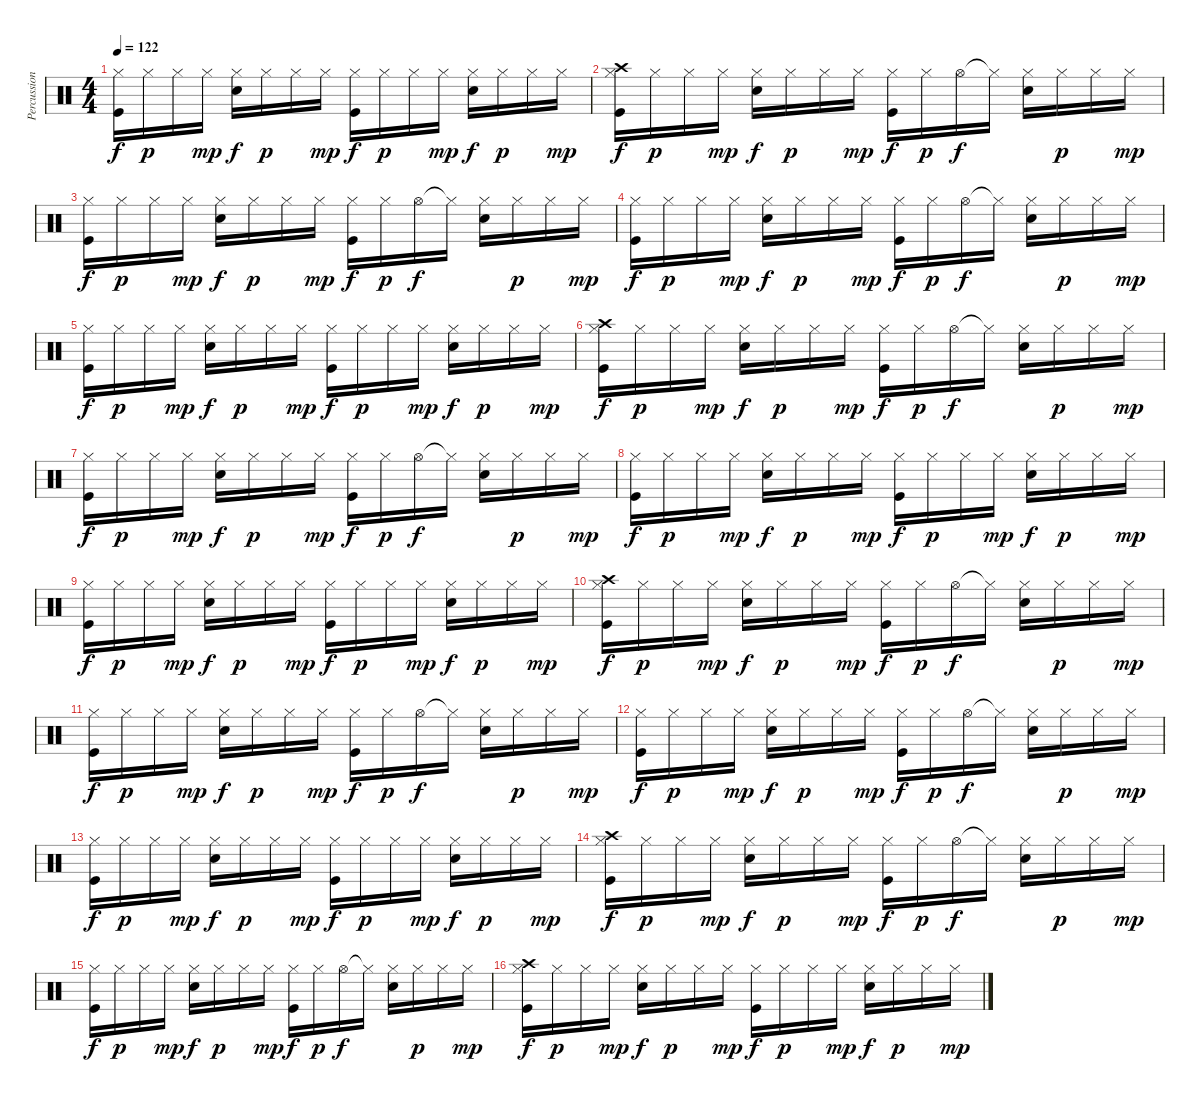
\track ("Percussion" "Percussion") {instrument percussion}
\staff {score}
\articulation defaults
\ts (4 4)
\tempo 122
\clef neutral
\ks c
("Hi-Hat (closed)" "Kick (hit)").16{dy f} "Hi-Hat (closed)".16{dy p} "Hi-Hat (closed)".16 "Hi-Hat (closed)".16{dy mp} ("Hi-Hat (closed)" "Snare (hit) 2").16{dy f} "Hi-Hat (closed)".16{dy p} "Hi-Hat (closed)".16 "Hi-Hat (closed)".16{dy mp} ("Hi-Hat (closed)" "Kick (hit)").16{dy f} "Hi-Hat (closed)".16{dy p} "Hi-Hat (closed)".16 "Hi-Hat (closed)".16{dy mp} ("Hi-Hat (closed)" "Snare (hit) 2").16{dy f} "Hi-Hat (closed)".16{dy p} "Hi-Hat (closed)".16 "Hi-Hat (closed)".16{dy mp} |
("Crash high (hit)" "Hi-Hat (closed)" "Kick (hit)").16{dy f} "Hi-Hat (closed)".16{dy p} "Hi-Hat (closed)".16 "Hi-Hat (closed)".16{dy mp} ("Hi-Hat (closed)" "Snare (hit) 2").16{dy f} "Hi-Hat (closed)".16{dy p} "Hi-Hat (closed)".16 "Hi-Hat (closed)".16{dy mp} ("Hi-Hat (closed)" "Kick (hit)").16{dy f} "Hi-Hat (closed)".16{dy p} "Hi-Hat (open)".16{dy f} "Hi-Hat (closed)"{t}.16 ("Hi-Hat (closed)" "Snare (hit) 2").16 "Hi-Hat (closed)".16{dy p} "Hi-Hat (closed)".16 "Hi-Hat (closed)".16{dy mp} |
("Hi-Hat (closed)" "Kick (hit)").16{dy f} "Hi-Hat (closed)".16{dy p} "Hi-Hat (closed)".16 "Hi-Hat (closed)".16{dy mp} ("Hi-Hat (closed)" "Snare (hit) 2").16{dy f} "Hi-Hat (closed)".16{dy p} "Hi-Hat (closed)".16 "Hi-Hat (closed)".16{dy mp} ("Hi-Hat (closed)" "Kick (hit)").16{dy f} "Hi-Hat (closed)".16{dy p} "Hi-Hat (open)".16{dy f} "Hi-Hat (closed)"{t}.16 ("Hi-Hat (closed)" "Snare (hit) 2").16 "Hi-Hat (closed)".16{dy p} "Hi-Hat (closed)".16 "Hi-Hat (closed)".16{dy mp} |
("Hi-Hat (closed)" "Kick (hit)").16{dy f} "Hi-Hat (closed)".16{dy p} "Hi-Hat (closed)".16 "Hi-Hat (closed)".16{dy mp} ("Hi-Hat (closed)" "Snare (hit) 2").16{dy f} "Hi-Hat (closed)".16{dy p} "Hi-Hat (closed)".16 "Hi-Hat (closed)".16{dy mp} ("Hi-Hat (closed)" "Kick (hit)").16{dy f} "Hi-Hat (closed)".16{dy p} "Hi-Hat (open)".16{dy f} "Hi-Hat (closed)"{t}.16 ("Hi-Hat (closed)" "Snare (hit) 2").16 "Hi-Hat (closed)".16{dy p} "Hi-Hat (closed)".16 "Hi-Hat (closed)".16{dy mp} |
("Hi-Hat (closed)" "Kick (hit)").16{dy f} "Hi-Hat (closed)".16{dy p} "Hi-Hat (closed)".16 "Hi-Hat (closed)".16{dy mp} ("Hi-Hat (closed)" "Snare (hit) 2").16{dy f} "Hi-Hat (closed)".16{dy p} "Hi-Hat (closed)".16 "Hi-Hat (closed)".16{dy mp} ("Hi-Hat (closed)" "Kick (hit)").16{dy f} "Hi-Hat (closed)".16{dy p} "Hi-Hat (closed)".16 "Hi-Hat (closed)".16{dy mp} ("Hi-Hat (closed)" "Snare (hit) 2").16{dy f} "Hi-Hat (closed)".16{dy p} "Hi-Hat (closed)".16 "Hi-Hat (closed)".16{dy mp} |
("Crash high (hit)" "Hi-Hat (closed)" "Kick (hit)").16{dy f} "Hi-Hat (closed)".16{dy p} "Hi-Hat (closed)".16 "Hi-Hat (closed)".16{dy mp} ("Hi-Hat (closed)" "Snare (hit) 2").16{dy f} "Hi-Hat (closed)".16{dy p} "Hi-Hat (closed)".16 "Hi-Hat (closed)".16{dy mp} ("Hi-Hat (closed)" "Kick (hit)").16{dy f} "Hi-Hat (closed)".16{dy p} "Hi-Hat (open)".16{dy f} "Hi-Hat (closed)"{t}.16 ("Hi-Hat (closed)" "Snare (hit) 2").16 "Hi-Hat (closed)".16{dy p} "Hi-Hat (closed)".16 "Hi-Hat (closed)".16{dy mp} |
("Hi-Hat (closed)" "Kick (hit)").16{dy f} "Hi-Hat (closed)".16{dy p} "Hi-Hat (closed)".16 "Hi-Hat (closed)".16{dy mp} ("Hi-Hat (closed)" "Snare (hit) 2").16{dy f} "Hi-Hat (closed)".16{dy p} "Hi-Hat (closed)".16 "Hi-Hat (closed)".16{dy mp} ("Hi-Hat (closed)" "Kick (hit)").16{dy f} "Hi-Hat (closed)".16{dy p} "Hi-Hat (open)".16{dy f} "Hi-Hat (closed)"{t}.16 ("Hi-Hat (closed)" "Snare (hit) 2").16 "Hi-Hat (closed)".16{dy p} "Hi-Hat (closed)".16 "Hi-Hat (closed)".16{dy mp} |
("Hi-Hat (closed)" "Kick (hit)").16{dy f} "Hi-Hat (closed)".16{dy p} "Hi-Hat (closed)".16 "Hi-Hat (closed)".16{dy mp} ("Hi-Hat (closed)" "Snare (hit) 2").16{dy f} "Hi-Hat (closed)".16{dy p} "Hi-Hat (closed)".16 "Hi-Hat (closed)".16{dy mp} ("Hi-Hat (closed)" "Kick (hit)").16{dy f} "Hi-Hat (closed)".16{dy p} "Hi-Hat (closed)".16 "Hi-Hat (closed)".16{dy mp} ("Hi-Hat (closed)" "Snare (hit) 2").16{dy f} "Hi-Hat (closed)".16{dy p} "Hi-Hat (closed)".16 "Hi-Hat (closed)".16{dy mp} |
("Hi-Hat (closed)" "Kick (hit)").16{dy f} "Hi-Hat (closed)".16{dy p} "Hi-Hat (closed)".16 "Hi-Hat (closed)".16{dy mp} ("Hi-Hat (closed)" "Snare (hit) 2").16{dy f} "Hi-Hat (closed)".16{dy p} "Hi-Hat (closed)".16 "Hi-Hat (closed)".16{dy mp} ("Hi-Hat (closed)" "Kick (hit)").16{dy f} "Hi-Hat (closed)".16{dy p} "Hi-Hat (closed)".16 "Hi-Hat (closed)".16{dy mp} ("Hi-Hat (closed)" "Snare (hit) 2").16{dy f} "Hi-Hat (closed)".16{dy p} "Hi-Hat (closed)".16 "Hi-Hat (closed)".16{dy mp} |
("Crash high (hit)" "Hi-Hat (closed)" "Kick (hit)").16{dy f} "Hi-Hat (closed)".16{dy p} "Hi-Hat (closed)".16 "Hi-Hat (closed)".16{dy mp} ("Hi-Hat (closed)" "Snare (hit) 2").16{dy f} "Hi-Hat (closed)".16{dy p} "Hi-Hat (closed)".16 "Hi-Hat (closed)".16{dy mp} ("Hi-Hat (closed)" "Kick (hit)").16{dy f} "Hi-Hat (closed)".16{dy p} "Hi-Hat (open)".16{dy f} "Hi-Hat (closed)"{t}.16 ("Hi-Hat (closed)" "Snare (hit) 2").16 "Hi-Hat (closed)".16{dy p} "Hi-Hat (closed)".16 "Hi-Hat (closed)".16{dy mp} |
("Hi-Hat (closed)" "Kick (hit)").16{dy f} "Hi-Hat (closed)".16{dy p} "Hi-Hat (closed)".16 "Hi-Hat (closed)".16{dy mp} ("Hi-Hat (closed)" "Snare (hit) 2").16{dy f} "Hi-Hat (closed)".16{dy p} "Hi-Hat (closed)".16 "Hi-Hat (closed)".16{dy mp} ("Hi-Hat (closed)" "Kick (hit)").16{dy f} "Hi-Hat (closed)".16{dy p} "Hi-Hat (open)".16{dy f} "Hi-Hat (closed)"{t}.16 ("Hi-Hat (closed)" "Snare (hit) 2").16 "Hi-Hat (closed)".16{dy p} "Hi-Hat (closed)".16 "Hi-Hat (closed)".16{dy mp} |
("Hi-Hat (closed)" "Kick (hit)").16{dy f} "Hi-Hat (closed)".16{dy p} "Hi-Hat (closed)".16 "Hi-Hat (closed)".16{dy mp} ("Hi-Hat (closed)" "Snare (hit) 2").16{dy f} "Hi-Hat (closed)".16{dy p} "Hi-Hat (closed)".16 "Hi-Hat (closed)".16{dy mp} ("Hi-Hat (closed)" "Kick (hit)").16{dy f} "Hi-Hat (closed)".16{dy p} "Hi-Hat (open)".16{dy f} "Hi-Hat (closed)"{t}.16 ("Hi-Hat (closed)" "Snare (hit) 2").16 "Hi-Hat (closed)".16{dy p} "Hi-Hat (closed)".16 "Hi-Hat (closed)".16{dy mp} |
("Hi-Hat (closed)" "Kick (hit)").16{dy f} "Hi-Hat (closed)".16{dy p} "Hi-Hat (closed)".16 "Hi-Hat (closed)".16{dy mp} ("Hi-Hat (closed)" "Snare (hit) 2").16{dy f} "Hi-Hat (closed)".16{dy p} "Hi-Hat (closed)".16 "Hi-Hat (closed)".16{dy mp} ("Hi-Hat (closed)" "Kick (hit)").16{dy f} "Hi-Hat (closed)".16{dy p} "Hi-Hat (closed)".16 "Hi-Hat (closed)".16{dy mp} ("Hi-Hat (closed)" "Snare (hit) 2").16{dy f} "Hi-Hat (closed)".16{dy p} "Hi-Hat (closed)".16 "Hi-Hat (closed)".16{dy mp} |
("Crash high (hit)" "Hi-Hat (closed)" "Kick (hit)").16{dy f} "Hi-Hat (closed)".16{dy p} "Hi-Hat (closed)".16 "Hi-Hat (closed)".16{dy mp} ("Hi-Hat (closed)" "Snare (hit) 2").16{dy f} "Hi-Hat (closed)".16{dy p} "Hi-Hat (closed)".16 "Hi-Hat (closed)".16{dy mp} ("Hi-Hat (closed)" "Kick (hit)").16{dy f} "Hi-Hat (closed)".16{dy p} "Hi-Hat (open)".16{dy f} "Hi-Hat (closed)"{t}.16 ("Hi-Hat (closed)" "Snare (hit) 2").16 "Hi-Hat (closed)".16{dy p} "Hi-Hat (closed)".16 "Hi-Hat (closed)".16{dy mp} |
("Hi-Hat (closed)" "Kick (hit)").16{dy f} "Hi-Hat (closed)".16{dy p} "Hi-Hat (closed)".16 "Hi-Hat (closed)".16{dy mp} ("Hi-Hat (closed)" "Snare (hit) 2").16{dy f} "Hi-Hat (closed)".16{dy p} "Hi-Hat (closed)".16 "Hi-Hat (closed)".16{dy mp} ("Hi-Hat (closed)" "Kick (hit)").16{dy f} "Hi-Hat (closed)".16{dy p} "Hi-Hat (open)".16{dy f} "Hi-Hat (closed)"{t}.16 ("Hi-Hat (closed)" "Snare (hit) 2").16 "Hi-Hat (closed)".16{dy p} "Hi-Hat (closed)".16 "Hi-Hat (closed)".16{dy mp} |
("Crash high (hit)" "Hi-Hat (closed)" "Kick (hit)").16{dy f} "Hi-Hat (closed)".16{dy p} "Hi-Hat (closed)".16 "Hi-Hat (closed)".16{dy mp} ("Hi-Hat (closed)" "Snare (hit) 2").16{dy f} "Hi-Hat (closed)".16{dy p} "Hi-Hat (closed)".16 "Hi-Hat (closed)".16{dy mp} ("Hi-Hat (closed)" "Kick (hit)").16{dy f} "Hi-Hat (closed)".16{dy p} "Hi-Hat (closed)".16 "Hi-Hat (closed)".16{dy mp} ("Hi-Hat (closed)" "Snare (hit) 2").16{dy f} "Hi-Hat (closed)".16{dy p} "Hi-Hat (closed)".16 "Hi-Hat (closed)".16{dy mp}
